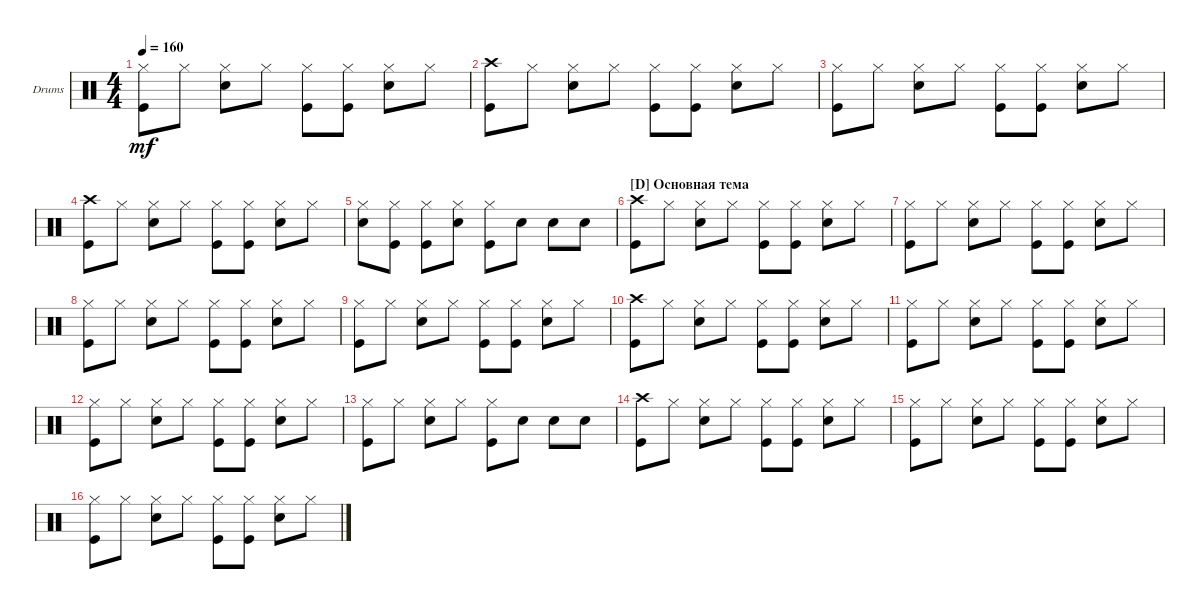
\bracketExtendMode groupsimilarinstruments
\firstSystemTrackNameOrientation horizontal
\otherSystemsTrackNameOrientation horizontal
\track ("Drumkit" "Drums") {instrument percussion}
\staff {score}
\articulation defaults
\ts (4 4)
\tempo 160
\clef neutral
\ks c
("Kick (hit)" "Hi-Hat (closed)").8{dy mf} "Hi-Hat (closed)".8 ("Hi-Hat (closed)" "Snare (hit) 2").8 "Hi-Hat (closed)".8 ("Kick (hit)" "Hi-Hat (closed)").8 ("Hi-Hat (closed)" "Kick (hit)").8 ("Hi-Hat (closed)" "Snare (hit) 2").8 "Hi-Hat (closed)".8 |
("Kick (hit)" "Crash high (hit)").8 "Hi-Hat (closed)".8 ("Hi-Hat (closed)" "Snare (hit) 2").8 "Hi-Hat (closed)".8 ("Kick (hit)" "Hi-Hat (closed)").8 ("Hi-Hat (closed)" "Kick (hit)").8 ("Hi-Hat (closed)" "Snare (hit) 2").8 "Hi-Hat (closed)".8 |
("Kick (hit)" "Hi-Hat (closed)").8 "Hi-Hat (closed)".8 ("Hi-Hat (closed)" "Snare (hit) 2").8 "Hi-Hat (closed)".8 ("Kick (hit)" "Hi-Hat (closed)").8 ("Hi-Hat (closed)" "Kick (hit)").8 ("Hi-Hat (closed)" "Snare (hit) 2").8 "Hi-Hat (closed)".8 |
("Kick (hit)" "Crash high (hit)").8 "Hi-Hat (closed)".8 ("Hi-Hat (closed)" "Snare (hit) 2").8 "Hi-Hat (closed)".8 ("Kick (hit)" "Hi-Hat (closed)").8 ("Hi-Hat (closed)" "Kick (hit)").8 ("Hi-Hat (closed)" "Snare (hit) 2").8 "Hi-Hat (closed)".8 |
("Hi-Hat (closed)" "Snare (hit) 2").8 ("Hi-Hat (closed)" "Kick (hit)").8 ("Hi-Hat (closed)" "Kick (hit)").8 ("Hi-Hat (closed)" "Snare (hit) 2").8 ("Kick (hit)" "Hi-Hat (closed)").8 "Snare (hit) 2".8 "Snare (hit) 2".8 "Snare (hit) 2".8 |
\section ("D" "Основная тема")
("Kick (hit)" "Crash high (hit)").8 "Hi-Hat (closed)".8 ("Hi-Hat (closed)" "Snare (hit) 2").8 "Hi-Hat (closed)".8 ("Kick (hit)" "Hi-Hat (closed)").8 ("Hi-Hat (closed)" "Kick (hit)").8 ("Hi-Hat (closed)" "Snare (hit) 2").8 "Hi-Hat (closed)".8 |
("Kick (hit)" "Hi-Hat (closed)").8 "Hi-Hat (closed)".8 ("Hi-Hat (closed)" "Snare (hit) 2").8 "Hi-Hat (closed)".8 ("Kick (hit)" "Hi-Hat (closed)").8 ("Hi-Hat (closed)" "Kick (hit)").8 ("Hi-Hat (closed)" "Snare (hit) 2").8 "Hi-Hat (closed)".8 |
("Kick (hit)" "Hi-Hat (closed)").8 "Hi-Hat (closed)".8 ("Hi-Hat (closed)" "Snare (hit) 2").8 "Hi-Hat (closed)".8 ("Kick (hit)" "Hi-Hat (closed)").8 ("Hi-Hat (closed)" "Kick (hit)").8 ("Hi-Hat (closed)" "Snare (hit) 2").8 "Hi-Hat (closed)".8 |
("Kick (hit)" "Hi-Hat (closed)").8 "Hi-Hat (closed)".8 ("Hi-Hat (closed)" "Snare (hit) 2").8 "Hi-Hat (closed)".8 ("Kick (hit)" "Hi-Hat (closed)").8 ("Hi-Hat (closed)" "Kick (hit)").8 ("Hi-Hat (closed)" "Snare (hit) 2").8 "Hi-Hat (closed)".8 |
("Kick (hit)" "Crash high (hit)").8 "Hi-Hat (closed)".8 ("Hi-Hat (closed)" "Snare (hit) 2").8 "Hi-Hat (closed)".8 ("Kick (hit)" "Hi-Hat (closed)").8 ("Hi-Hat (closed)" "Kick (hit)").8 ("Hi-Hat (closed)" "Snare (hit) 2").8 "Hi-Hat (closed)".8 |
("Kick (hit)" "Hi-Hat (closed)").8 "Hi-Hat (closed)".8 ("Hi-Hat (closed)" "Snare (hit) 2").8 "Hi-Hat (closed)".8 ("Kick (hit)" "Hi-Hat (closed)").8 ("Hi-Hat (closed)" "Kick (hit)").8 ("Hi-Hat (closed)" "Snare (hit) 2").8 "Hi-Hat (closed)".8 |
("Kick (hit)" "Hi-Hat (closed)").8 "Hi-Hat (closed)".8 ("Hi-Hat (closed)" "Snare (hit) 2").8 "Hi-Hat (closed)".8 ("Kick (hit)" "Hi-Hat (closed)").8 ("Hi-Hat (closed)" "Kick (hit)").8 ("Hi-Hat (closed)" "Snare (hit) 2").8 "Hi-Hat (closed)".8 |
("Kick (hit)" "Hi-Hat (closed)").8 "Hi-Hat (closed)".8 ("Hi-Hat (closed)" "Snare (hit) 2").8 "Hi-Hat (closed)".8 ("Kick (hit)" "Hi-Hat (closed)").8 "Snare (hit) 2".8 "Snare (hit) 2".8 "Snare (hit) 2".8 |
("Kick (hit)" "Crash high (hit)").8 "Hi-Hat (closed)".8 ("Hi-Hat (closed)" "Snare (hit) 2").8 "Hi-Hat (closed)".8 ("Kick (hit)" "Hi-Hat (closed)").8 ("Hi-Hat (closed)" "Kick (hit)").8 ("Hi-Hat (closed)" "Snare (hit) 2").8 "Hi-Hat (closed)".8 |
("Kick (hit)" "Hi-Hat (closed)").8 "Hi-Hat (closed)".8 ("Hi-Hat (closed)" "Snare (hit) 2").8 "Hi-Hat (closed)".8 ("Kick (hit)" "Hi-Hat (closed)").8 ("Hi-Hat (closed)" "Kick (hit)").8 ("Hi-Hat (closed)" "Snare (hit) 2").8 "Hi-Hat (closed)".8 |
("Kick (hit)" "Hi-Hat (closed)").8 "Hi-Hat (closed)".8 ("Hi-Hat (closed)" "Snare (hit) 2").8 "Hi-Hat (closed)".8 ("Kick (hit)" "Hi-Hat (closed)").8 ("Hi-Hat (closed)" "Kick (hit)").8 ("Hi-Hat (closed)" "Snare (hit) 2").8 "Hi-Hat (closed)".8
